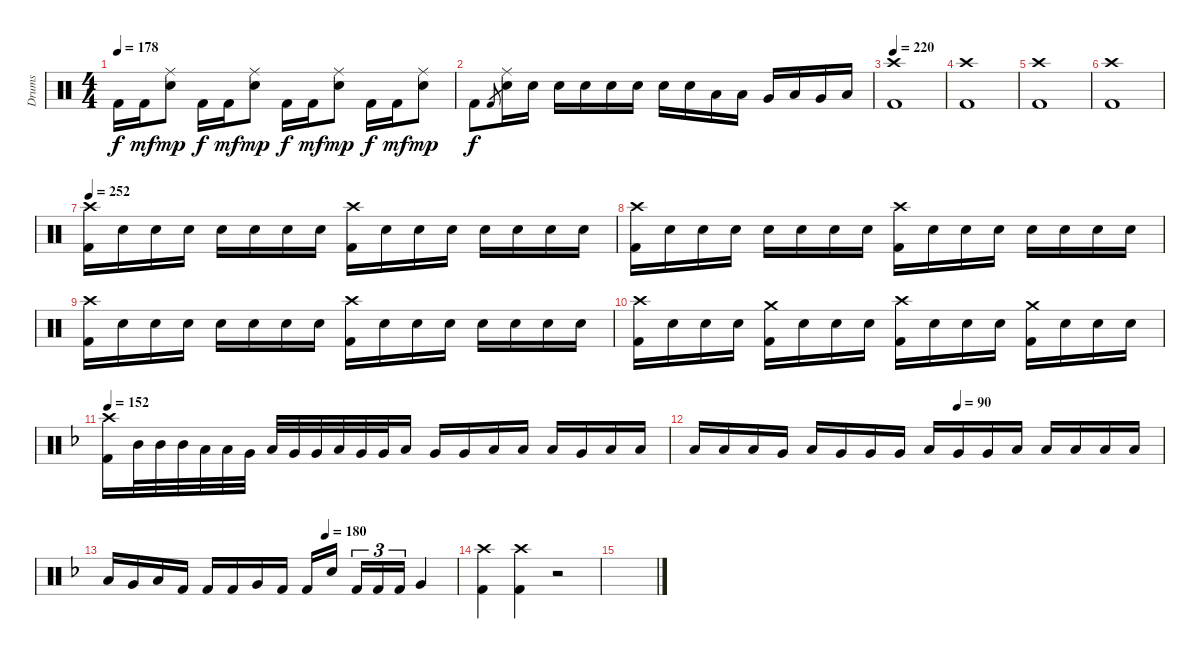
\track ("Drums" "Drums") {instrument percussion}
\staff {score}
\articulation defaults
\ts (4 4)
\tempo 178
\clef neutral
\ks aminor "Kick (hit) 2".16{dy f} "Kick (hit) 2".16{dy mf}
("Ride (middle)" "Snare (hit) 2").8{dy mp} "Kick (hit) 2".16{dy f} "Kick (hit) 2".16{dy mf} ("Ride (middle)" "Snare (hit) 2").8{dy mp} "Kick (hit) 2".16{dy f} "Kick (hit) 2".16{dy mf} ("Ride (middle)" "Snare (hit) 2").8{dy mp} "Kick (hit) 2".16{dy f} "Kick (hit) 2".16{dy mf} ("Ride (middle)" "Snare (hit) 2").8{dy mp} |
"Kick (hit) 2".8{dy f} "Kick (hit) 2".8{gr} ("Ride (middle)" "Snare (hit) 2").16 "Snare (hit) 2".16 "Snare (hit) 2".16 "Snare (hit) 2".16 "Snare (hit) 2".16 "Snare (hit) 2".16 "Snare (hit) 2".16 "Snare (hit) 2".16 "Low Tom (hit)".16 "Low Tom (hit)".16 "Very Low Tom (hit)".16 "Low Tom (hit)".16 "Very Low Tom (hit)".16 "Low Floor Tom (hit)".16 |
\tempo 220
("Crash high (hit)" "Kick (hit) 2").1 |
("Crash high (hit)" "Kick (hit) 2").1 |
("Crash high (hit)" "Kick (hit) 2").1 |
("Crash high (hit)" "Kick (hit) 2").1 |
\tempo 252
("Crash high (hit)" "Kick (hit) 2").16 "Snare (hit) 2".16 "Snare (hit) 2".16 "Snare (hit) 2".16 "Snare (hit) 2".16 "Snare (hit) 2".16 "Snare (hit) 2".16 "Snare (hit) 2".16 ("Crash high (hit)" "Kick (hit) 2").16 "Snare (hit) 2".16 "Snare (hit) 2".16 "Snare (hit) 2".16 "Snare (hit) 2".16 "Snare (hit) 2".16 "Snare (hit) 2".16 "Snare (hit) 2".16 |
("Crash high (hit)" "Kick (hit) 2").16 "Snare (hit) 2".16 "Snare (hit) 2".16 "Snare (hit) 2".16 "Snare (hit) 2".16 "Snare (hit) 2".16 "Snare (hit) 2".16 "Snare (hit) 2".16 ("Crash high (hit)" "Kick (hit) 2").16 "Snare (hit) 2".16 "Snare (hit) 2".16 "Snare (hit) 2".16 "Snare (hit) 2".16 "Snare (hit) 2".16 "Snare (hit) 2".16 "Snare (hit) 2".16 |
("Crash high (hit)" "Kick (hit) 2").16 "Snare (hit) 2".16 "Snare (hit) 2".16 "Snare (hit) 2".16 "Snare (hit) 2".16 "Snare (hit) 2".16 "Snare (hit) 2".16 "Snare (hit) 2".16 ("Crash high (hit)" "Kick (hit) 2").16 "Snare (hit) 2".16 "Snare (hit) 2".16 "Snare (hit) 2".16 "Snare (hit) 2".16 "Snare (hit) 2".16 "Snare (hit) 2".16 "Snare (hit) 2".16 |
("Crash high (hit)" "Kick (hit) 2").16 "Snare (hit) 2".16 "Snare (hit) 2".16 "Snare (hit) 2".16 ("Crash medium (hit)" "Kick (hit) 2").16 "Snare (hit) 2".16 "Snare (hit) 2".16 "Snare (hit) 2".16 ("Crash high (hit)" "Kick (hit) 2").16 "Snare (hit) 2".16 "Snare (hit) 2".16 "Snare (hit) 2".16 ("Crash medium (hit)" "Kick (hit) 2").16 "Snare (hit) 2".16 "Snare (hit) 2".16 "Snare (hit) 2".16 |
\tempo 152
\ks f
("Crash high (hit)" "Kick (hit) 2").16 "Mid Tom (hit)".32 "Mid Tom (hit)".32 "Mid Tom (hit)".32 "Low Tom (hit)".32 "Low Tom (hit)".32 "Very Low Tom (hit)".32 "Low Tom (hit)".32 "Very Low Tom (hit)".32 "Very Low Tom (hit)".32 "Low Tom (hit)".32 "Very Low Tom (hit)".32 "Very Low Tom (hit)".32 "Low Floor Tom (hit)".16 "Very Low Tom (hit)".16 "Very Low Tom (hit)".16 "Low Tom (hit)".16 "Low Tom (hit)".16 "Low Tom (hit)".16 "Very Low Tom (hit)".16 "Low Tom (hit)".16 "Low Tom (hit)".16 |
\tempo (90 0.5625)
"Low Tom (hit)".16 "Low Tom (hit)".16 "Low Tom (hit)".16 "Very Low Tom (hit)".16 "Low Tom (hit)".16 "Very Low Tom (hit)".16 "Very Low Tom (hit)".16 "Very Low Tom (hit)".16 "Low Floor Tom (hit)".16 "Very Low Tom (hit)".16 "Very Low Tom (hit)".16 "Low Floor Tom (hit)".16 "Low Floor Tom (hit)".16 "Low Floor Tom (hit)".16 "Low Floor Tom (hit)".16 "Low Floor Tom (hit)".16 |
\tempo (180 0.625)
"Low Tom (hit)".16 "Very Low Tom (hit)".16 "Low Tom (hit)".16 "Kick (hit) 2".16 "Kick (hit) 2".16 "Kick (hit) 2".16 "Very Low Tom (hit)".16 "Kick (hit) 2".16 "Kick (hit) 2".16 "Snare (hit) 2".16{beam splitsecondary} "Kick (hit) 2".16{tu (3 2)} "Kick (hit) 2".16{tu (3 2)} "Kick (hit) 2".16{tu (3 2)} "Very Low Tom (hit)".4 |
("Crash high (hit)" "Kick (hit) 2").4 ("Crash high (hit)" "Kick (hit) 2").4 r.2 |
\ks dminor
